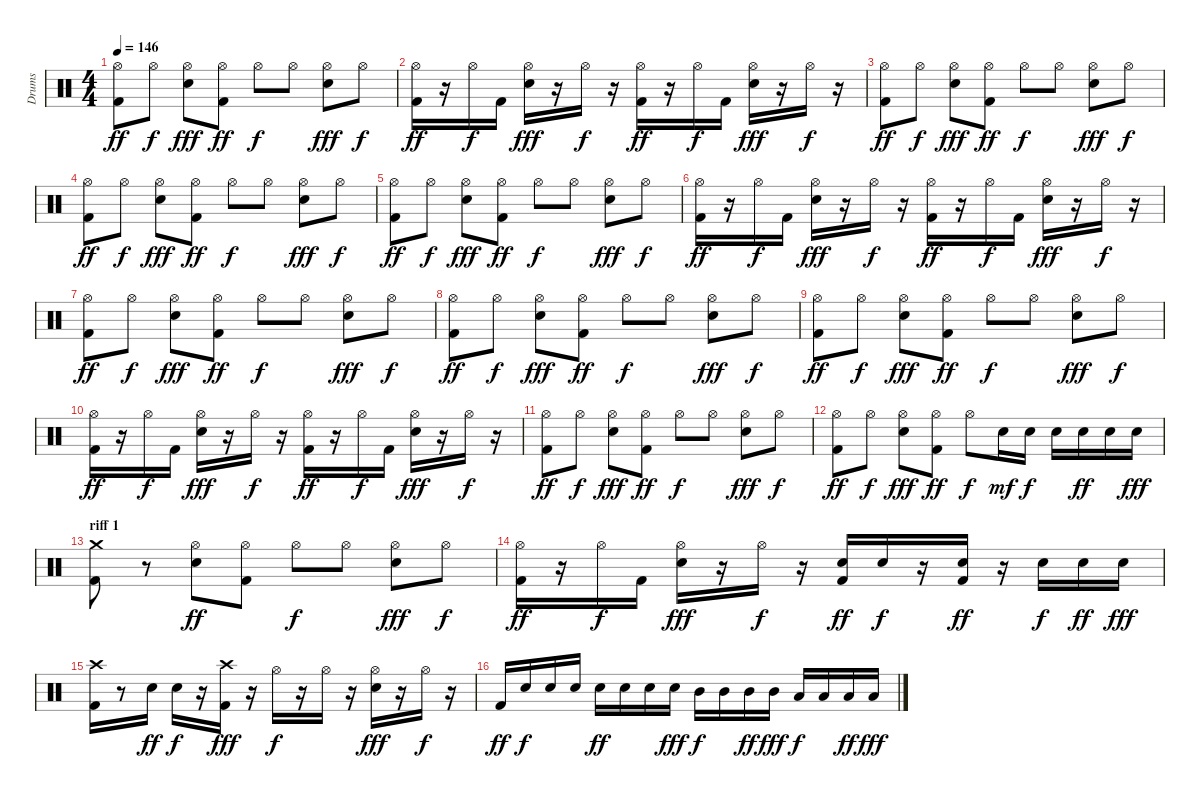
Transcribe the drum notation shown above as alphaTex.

\track ("Drums" "Drums") {instrument percussion}
\staff {score}
\articulation defaults
\ts (4 4)
\tempo 146
\clef neutral
\ks c
("Kick (hit) 2" "Hi-Hat (open)").8{dy ff} "Hi-Hat (open)".8{dy f} ("Snare (hit) 2" "Hi-Hat (open)").8{dy fff} ("Kick (hit) 2" "Hi-Hat (open)").8{dy ff} "Hi-Hat (open)".8{dy f} "Hi-Hat (open)".8 ("Snare (hit) 2" "Hi-Hat (open)").8{dy fff} "Hi-Hat (open)".8{dy f} |
("Kick (hit) 2" "Hi-Hat (open)").16{dy ff} r.16 "Hi-Hat (open)".16{dy f} "Kick (hit) 2".16 ("Snare (hit) 2" "Hi-Hat (open)").16{dy fff} r.16 "Hi-Hat (open)".16{dy f} r.16 ("Kick (hit) 2" "Hi-Hat (open)").16{dy ff} r.16 "Hi-Hat (open)".16{dy f} "Kick (hit) 2".16 ("Snare (hit) 2" "Hi-Hat (open)").16{dy fff} r.16 "Hi-Hat (open)".16{dy f} r.16 |
("Kick (hit) 2" "Hi-Hat (open)").8{dy ff} "Hi-Hat (open)".8{dy f} ("Snare (hit) 2" "Hi-Hat (open)").8{dy fff} ("Kick (hit) 2" "Hi-Hat (open)").8{dy ff} "Hi-Hat (open)".8{dy f} "Hi-Hat (open)".8 ("Snare (hit) 2" "Hi-Hat (open)").8{dy fff} "Hi-Hat (open)".8{dy f} |
("Kick (hit) 2" "Hi-Hat (open)").8{dy ff} "Hi-Hat (open)".8{dy f} ("Snare (hit) 2" "Hi-Hat (open)").8{dy fff} ("Kick (hit) 2" "Hi-Hat (open)").8{dy ff} "Hi-Hat (open)".8{dy f} "Hi-Hat (open)".8 ("Snare (hit) 2" "Hi-Hat (open)").8{dy fff} "Hi-Hat (open)".8{dy f} |
("Kick (hit) 2" "Hi-Hat (open)").8{dy ff} "Hi-Hat (open)".8{dy f} ("Snare (hit) 2" "Hi-Hat (open)").8{dy fff} ("Kick (hit) 2" "Hi-Hat (open)").8{dy ff} "Hi-Hat (open)".8{dy f} "Hi-Hat (open)".8 ("Snare (hit) 2" "Hi-Hat (open)").8{dy fff} "Hi-Hat (open)".8{dy f} |
("Kick (hit) 2" "Hi-Hat (open)").16{dy ff} r.16 "Hi-Hat (open)".16{dy f} "Kick (hit) 2".16 ("Snare (hit) 2" "Hi-Hat (open)").16{dy fff} r.16 "Hi-Hat (open)".16{dy f} r.16 ("Kick (hit) 2" "Hi-Hat (open)").16{dy ff} r.16 "Hi-Hat (open)".16{dy f} "Kick (hit) 2".16 ("Snare (hit) 2" "Hi-Hat (open)").16{dy fff} r.16 "Hi-Hat (open)".16{dy f} r.16 |
("Kick (hit) 2" "Hi-Hat (open)").8{dy ff} "Hi-Hat (open)".8{dy f} ("Snare (hit) 2" "Hi-Hat (open)").8{dy fff} ("Kick (hit) 2" "Hi-Hat (open)").8{dy ff} "Hi-Hat (open)".8{dy f} "Hi-Hat (open)".8 ("Snare (hit) 2" "Hi-Hat (open)").8{dy fff} "Hi-Hat (open)".8{dy f} |
("Kick (hit) 2" "Hi-Hat (open)").8{dy ff} "Hi-Hat (open)".8{dy f} ("Snare (hit) 2" "Hi-Hat (open)").8{dy fff} ("Kick (hit) 2" "Hi-Hat (open)").8{dy ff} "Hi-Hat (open)".8{dy f} "Hi-Hat (open)".8 ("Snare (hit) 2" "Hi-Hat (open)").8{dy fff} "Hi-Hat (open)".8{dy f} |
("Kick (hit) 2" "Hi-Hat (open)").8{dy ff} "Hi-Hat (open)".8{dy f} ("Snare (hit) 2" "Hi-Hat (open)").8{dy fff} ("Kick (hit) 2" "Hi-Hat (open)").8{dy ff} "Hi-Hat (open)".8{dy f} "Hi-Hat (open)".8 ("Snare (hit) 2" "Hi-Hat (open)").8{dy fff} "Hi-Hat (open)".8{dy f} |
("Kick (hit) 2" "Hi-Hat (open)").16{dy ff} r.16 "Hi-Hat (open)".16{dy f} "Kick (hit) 2".16 ("Snare (hit) 2" "Hi-Hat (open)").16{dy fff} r.16 "Hi-Hat (open)".16{dy f} r.16 ("Kick (hit) 2" "Hi-Hat (open)").16{dy ff} r.16 "Hi-Hat (open)".16{dy f} "Kick (hit) 2".16 ("Snare (hit) 2" "Hi-Hat (open)").16{dy fff} r.16 "Hi-Hat (open)".16{dy f} r.16 |
("Kick (hit) 2" "Hi-Hat (open)").8{dy ff} "Hi-Hat (open)".8{dy f} ("Snare (hit) 2" "Hi-Hat (open)").8{dy fff} ("Kick (hit) 2" "Hi-Hat (open)").8{dy ff} "Hi-Hat (open)".8{dy f} "Hi-Hat (open)".8 ("Snare (hit) 2" "Hi-Hat (open)").8{dy fff} "Hi-Hat (open)".8{dy f} |
("Kick (hit) 2" "Hi-Hat (open)").8{dy ff} "Hi-Hat (open)".8{dy f} ("Snare (hit) 2" "Hi-Hat (open)").8{dy fff} ("Kick (hit) 2" "Hi-Hat (open)").8{dy ff} "Hi-Hat (open)".8{dy f} "Snare (hit) 2".16{dy mf} "Snare (hit) 2".16{dy f} "Snare (hit) 2".16 "Snare (hit) 2".16{dy ff} "Snare (hit) 2".16 "Snare (hit) 2".16{dy fff} |
\section ("" "riff 1")
("Kick (hit) 2" "Crash medium (hit)").8 r.8 ("Hi-Hat (open)" "Snare (hit) 2").8{dy ff} ("Hi-Hat (open)" "Kick (hit) 2").8 "Hi-Hat (open)".8{dy f} "Hi-Hat (open)".8 ("Snare (hit) 2" "Hi-Hat (open)").8{dy fff} "Hi-Hat (open)".8{dy f} |
("Kick (hit) 2" "Hi-Hat (open)").16{dy ff} r.16 "Hi-Hat (open)".16{dy f} "Kick (hit) 2".16 ("Snare (hit) 2" "Hi-Hat (open)").16{dy fff} r.16 "Hi-Hat (open)".16{dy f} r.16 ("Snare (hit) 2" "Kick (hit) 2").16{dy ff} "Snare (hit) 2".16{dy f} r.16 ("Snare (hit) 2" "Kick (hit) 2").16{dy ff} r.16 "Snare (hit) 2".16{dy f} "Snare (hit) 2".16{dy ff} "Snare (hit) 2".16{dy fff} |
("Kick (hit) 2" "Crash high (hit)").16 r.8 "Snare (hit) 2".16{dy ff} "Snare (hit) 2".16{dy f} r.16 ("Kick (hit) 2" "Crash high (hit)").16{dy fff} r.16 "Hi-Hat (open)".16{dy f} r.16 "Hi-Hat (open)".16 r.16 ("Snare (hit) 2" "Hi-Hat (open)").16{dy fff} r.16 "Hi-Hat (open)".16{dy f} r.16 |
"Kick (hit) 2".16{dy ff} "Snare (hit) 2".16{dy f} "Snare (hit) 2".16 "Snare (hit) 2".16 "Snare (hit) 2".16{dy ff} "Snare (hit) 2".16 "Snare (hit) 2".16 "Snare (hit) 2".16{dy fff} "Mid Tom (hit)".16{dy f} "Mid Tom (hit)".16 "Mid Tom (hit)".16{dy ff} "Mid Tom (hit)".16{dy fff} "Low Tom (hit)".16{dy f} "Low Tom (hit)".16 "Low Tom (hit)".16{dy ff} "Low Tom (hit)".16{dy fff}
